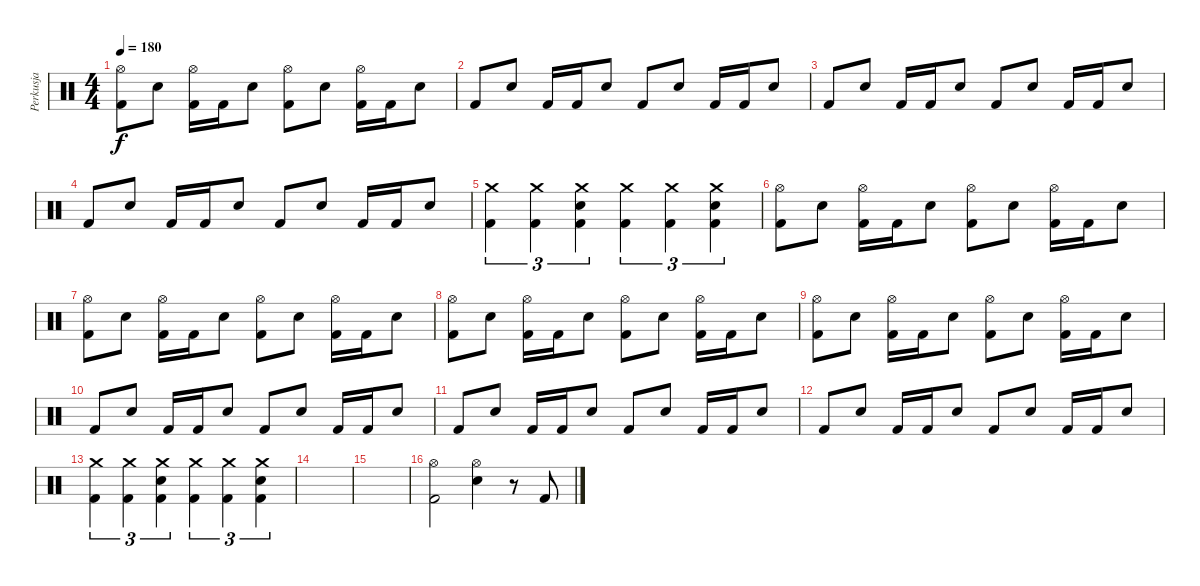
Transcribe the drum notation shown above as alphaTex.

\track ("Perkusja" "Perkusja") {instrument percussion}
\staff {score}
\articulation defaults
\ts (4 4)
\tempo 180
\clef neutral
\ks c
("Hi-Hat (open)" "Kick (hit) 2").8{dy f} "Electric Snare (hit)".8 ("Hi-Hat (open)" "Kick (hit) 2").16 "Kick (hit) 2".16 "Electric Snare (hit)".8 ("Hi-Hat (open)" "Kick (hit) 2").8 "Electric Snare (hit)".8 ("Hi-Hat (open)" "Kick (hit) 2").16 "Kick (hit) 2".16 "Electric Snare (hit)".8 |
"Kick (hit) 2".8 "Electric Snare (hit)".8 "Kick (hit) 2".16 "Kick (hit) 2".16 "Electric Snare (hit)".8 "Kick (hit) 2".8 "Electric Snare (hit)".8 "Kick (hit) 2".16 "Kick (hit) 2".16 "Electric Snare (hit)".8 |
"Kick (hit) 2".8 "Electric Snare (hit)".8 "Kick (hit) 2".16 "Kick (hit) 2".16 "Electric Snare (hit)".8 "Kick (hit) 2".8 "Electric Snare (hit)".8 "Kick (hit) 2".16 "Kick (hit) 2".16 "Electric Snare (hit)".8 |
"Kick (hit) 2".8 "Electric Snare (hit)".8 "Kick (hit) 2".16 "Kick (hit) 2".16 "Electric Snare (hit)".8 "Kick (hit) 2".8 "Electric Snare (hit)".8 "Kick (hit) 2".16 "Kick (hit) 2".16 "Electric Snare (hit)".8 |
("Crash medium (hit)" "Kick (hit) 2").4{tu (3 2)} ("Crash medium (hit)" "Kick (hit) 2").4{tu (3 2)} ("Crash medium (hit)" "Electric Snare (hit)" "Kick (hit) 2").4{tu (3 2)} ("Crash medium (hit)" "Kick (hit) 2").4{tu (3 2)} ("Crash medium (hit)" "Kick (hit) 2").4{tu (3 2)} ("Crash medium (hit)" "Electric Snare (hit)" "Kick (hit) 2").4{tu (3 2)} |
("Hi-Hat (open)" "Kick (hit) 2").8 "Electric Snare (hit)".8 ("Hi-Hat (open)" "Kick (hit) 2").16 "Kick (hit) 2".16 "Electric Snare (hit)".8 ("Hi-Hat (open)" "Kick (hit) 2").8 "Electric Snare (hit)".8 ("Hi-Hat (open)" "Kick (hit) 2").16 "Kick (hit) 2".16 "Electric Snare (hit)".8 |
("Hi-Hat (open)" "Kick (hit) 2").8 "Electric Snare (hit)".8 ("Hi-Hat (open)" "Kick (hit) 2").16 "Kick (hit) 2".16 "Electric Snare (hit)".8 ("Hi-Hat (open)" "Kick (hit) 2").8 "Electric Snare (hit)".8 ("Hi-Hat (open)" "Kick (hit) 2").16 "Kick (hit) 2".16 "Electric Snare (hit)".8 |
("Hi-Hat (open)" "Kick (hit) 2").8 "Electric Snare (hit)".8 ("Hi-Hat (open)" "Kick (hit) 2").16 "Kick (hit) 2".16 "Electric Snare (hit)".8 ("Hi-Hat (open)" "Kick (hit) 2").8 "Electric Snare (hit)".8 ("Hi-Hat (open)" "Kick (hit) 2").16 "Kick (hit) 2".16 "Electric Snare (hit)".8 |
("Hi-Hat (open)" "Kick (hit) 2").8 "Electric Snare (hit)".8 ("Hi-Hat (open)" "Kick (hit) 2").16 "Kick (hit) 2".16 "Electric Snare (hit)".8 ("Hi-Hat (open)" "Kick (hit) 2").8 "Electric Snare (hit)".8 ("Hi-Hat (open)" "Kick (hit) 2").16 "Kick (hit) 2".16 "Electric Snare (hit)".8 |
"Kick (hit) 2".8 "Electric Snare (hit)".8 "Kick (hit) 2".16 "Kick (hit) 2".16 "Electric Snare (hit)".8 "Kick (hit) 2".8 "Electric Snare (hit)".8 "Kick (hit) 2".16 "Kick (hit) 2".16 "Electric Snare (hit)".8 |
"Kick (hit) 2".8 "Electric Snare (hit)".8 "Kick (hit) 2".16 "Kick (hit) 2".16 "Electric Snare (hit)".8 "Kick (hit) 2".8 "Electric Snare (hit)".8 "Kick (hit) 2".16 "Kick (hit) 2".16 "Electric Snare (hit)".8 |
"Kick (hit) 2".8 "Electric Snare (hit)".8 "Kick (hit) 2".16 "Kick (hit) 2".16 "Electric Snare (hit)".8 "Kick (hit) 2".8 "Electric Snare (hit)".8 "Kick (hit) 2".16 "Kick (hit) 2".16 "Electric Snare (hit)".8 |
("Crash medium (hit)" "Kick (hit) 2").4{tu (3 2)} ("Crash medium (hit)" "Kick (hit) 2").4{tu (3 2)} ("Crash medium (hit)" "Electric Snare (hit)" "Kick (hit) 2").4{tu (3 2)} ("Crash medium (hit)" "Kick (hit) 2").4{tu (3 2)} ("Crash medium (hit)" "Kick (hit) 2").4{tu (3 2)} ("Crash medium (hit)" "Electric Snare (hit)" "Kick (hit) 2").4{tu (3 2)} |
|
|
("Hi-Hat (open)" "Kick (hit) 2").2 ("Hi-Hat (open)" "Electric Snare (hit)").4 r.8 "Kick (hit) 2".8
